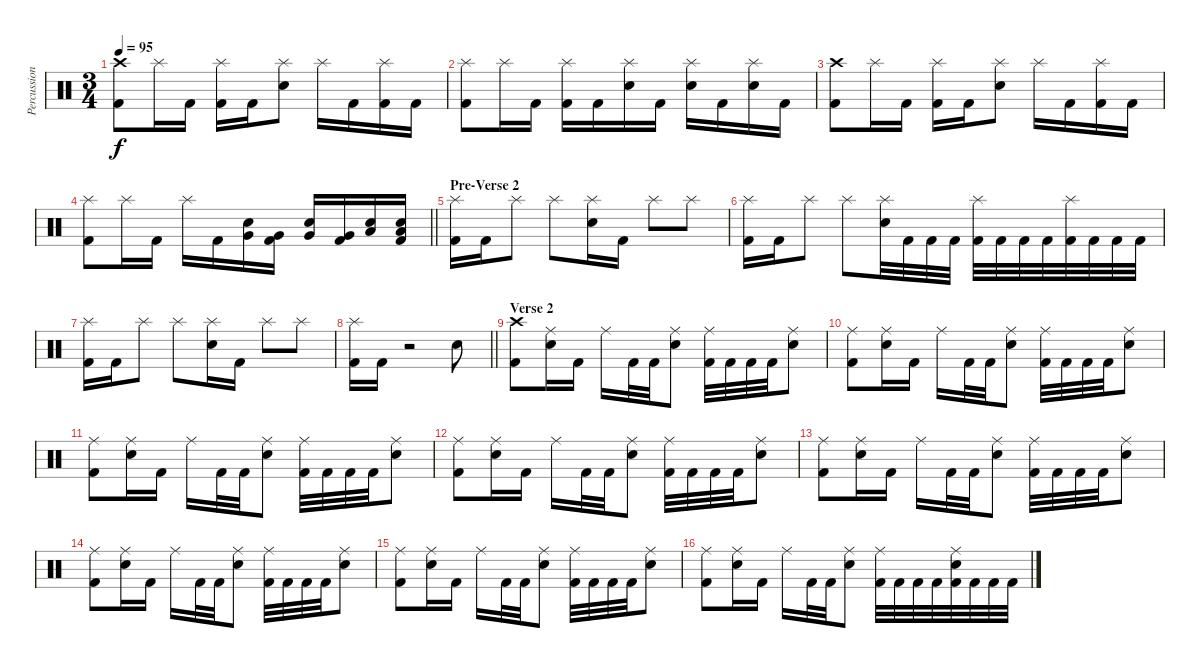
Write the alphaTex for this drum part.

\track ("Percussion Mike" "Percussion") {instrument percussion}
\staff {score}
\articulation defaults
\ts (3 4)
\tempo 95
\clef neutral
\ks c
("Crash high (hit)" "Kick (hit) 2").8{dy f} "Splash (hit)".16 "Kick (hit) 2".16 ("Splash (hit)" "Kick (hit) 2").16 "Kick (hit) 2".16 ("Splash (hit)" "Snare (hit) 2").8 "Splash (hit)".16 "Kick (hit) 2".16 ("Splash (hit)" "Kick (hit) 2").16 "Kick (hit) 2".16 |
("Splash (hit)" "Kick (hit) 2").8 "Splash (hit)".16 "Kick (hit) 2".16 ("Splash (hit)" "Kick (hit) 2").16 "Kick (hit) 2".16 ("Splash (hit)" "Snare (hit) 2").16 "Kick (hit) 2".16 ("Splash (hit)" "Snare (hit) 2").16 "Kick (hit) 2".16 ("Splash (hit)" "Snare (hit) 2").16 "Kick (hit) 2".16 |
("Crash high (hit)" "Kick (hit) 2").8 "Splash (hit)".16 "Kick (hit) 2".16 ("Splash (hit)" "Kick (hit) 2").16 "Kick (hit) 2".16 ("Splash (hit)" "Snare (hit) 2").8 "Splash (hit)".16 "Kick (hit) 2".16 ("Splash (hit)" "Kick (hit) 2").16 "Kick (hit) 2".16 |
\barLineRight lightlight
("Splash (hit)" "Kick (hit) 2").8 "Splash (hit)".16 "Kick (hit) 2".16 "Splash (hit)".16 "Kick (hit) 2".16 ("Very Low Tom (hit)" "Snare (hit) 2").16 ("Very Low Tom (hit)" "Kick (hit) 2").16 ("Very Low Tom (hit)" "Snare (hit) 2").16 ("Very Low Tom (hit)" "Kick (hit) 2").16 ("Snare (hit) 2" "Low Floor Tom (hit)").16 ("Snare (hit) 2" "Low Floor Tom (hit)" "Kick (hit) 2").16 |
\section ("" "Pre-Verse 2")
("Splash (hit)" "Kick (hit) 2").16 "Kick (hit) 2".16 "Splash (hit)".8 "Splash (hit)".8 ("Splash (hit)" "Snare (hit) 2").16 "Kick (hit) 2".16 "Splash (hit)".8 "Splash (hit)".8 |
("Splash (hit)" "Kick (hit) 2").16 "Kick (hit) 2".16 "Splash (hit)".8 "Splash (hit)".8 ("Splash (hit)" "Snare (hit) 2").32 "Kick (hit) 2".32 "Kick (hit) 2".32 "Kick (hit) 2".32 ("Splash (hit)" "Kick (hit) 2").32 "Kick (hit) 2".32 "Kick (hit) 2".32 "Kick (hit) 2".32 ("Splash (hit)" "Kick (hit) 2").32 "Kick (hit) 2".32 "Kick (hit) 2".32 "Kick (hit) 2".32 |
("Splash (hit)" "Kick (hit) 2").16 "Kick (hit) 2".16 "Splash (hit)".8 "Splash (hit)".8 ("Splash (hit)" "Snare (hit) 2").16 "Kick (hit) 2".16 "Splash (hit)".8 "Splash (hit)".8 |
\barLineRight lightlight
("Splash (hit)" "Kick (hit) 2").16 "Kick (hit) 2".16 r.2 "Snare (hit) 2".8 |
\section ("" "Verse 2")
("Crash high (hit)" "Kick (hit) 2").8 ("Ride (middle)" "Snare (hit) 2").16 "Kick (hit) 2".16 "Ride (middle)".16 "Kick (hit) 2".32 "Kick (hit) 2".32 ("Ride (middle)" "Snare (hit) 2").8 ("Ride (middle)" "Kick (hit) 2").32 "Kick (hit) 2".32 "Kick (hit) 2".32 "Kick (hit) 2".32 ("Ride (middle)" "Snare (hit) 2").8 |
("Ride (middle)" "Kick (hit) 2").8 ("Ride (middle)" "Snare (hit) 2").16 "Kick (hit) 2".16 "Ride (middle)".16 "Kick (hit) 2".32 "Kick (hit) 2".32 ("Ride (middle)" "Snare (hit) 2").8 ("Ride (middle)" "Kick (hit) 2").32 "Kick (hit) 2".32 "Kick (hit) 2".32 "Kick (hit) 2".32 ("Ride (middle)" "Snare (hit) 2").8 |
("Ride (middle)" "Kick (hit) 2").8 ("Ride (middle)" "Snare (hit) 2").16 "Kick (hit) 2".16 "Ride (middle)".16 "Kick (hit) 2".32 "Kick (hit) 2".32 ("Ride (middle)" "Snare (hit) 2").8 ("Ride (middle)" "Kick (hit) 2").32 "Kick (hit) 2".32 "Kick (hit) 2".32 "Kick (hit) 2".32 ("Ride (middle)" "Snare (hit) 2").8 |
("Ride (middle)" "Kick (hit) 2").8 ("Ride (middle)" "Snare (hit) 2").16 "Kick (hit) 2".16 "Ride (middle)".16 "Kick (hit) 2".32 "Kick (hit) 2".32 ("Ride (middle)" "Snare (hit) 2").8 ("Ride (middle)" "Kick (hit) 2").32 "Kick (hit) 2".32 "Kick (hit) 2".32 "Kick (hit) 2".32 ("Ride (middle)" "Snare (hit) 2").8 |
("Ride (middle)" "Kick (hit) 2").8 ("Ride (middle)" "Snare (hit) 2").16 "Kick (hit) 2".16 "Ride (middle)".16 "Kick (hit) 2".32 "Kick (hit) 2".32 ("Ride (middle)" "Snare (hit) 2").8 ("Ride (middle)" "Kick (hit) 2").32 "Kick (hit) 2".32 "Kick (hit) 2".32 "Kick (hit) 2".32 ("Ride (middle)" "Snare (hit) 2").8 |
("Ride (middle)" "Kick (hit) 2").8 ("Ride (middle)" "Snare (hit) 2").16 "Kick (hit) 2".16 "Ride (middle)".16 "Kick (hit) 2".32 "Kick (hit) 2".32 ("Ride (middle)" "Snare (hit) 2").8 ("Ride (middle)" "Kick (hit) 2").32 "Kick (hit) 2".32 "Kick (hit) 2".32 "Kick (hit) 2".32 ("Ride (middle)" "Snare (hit) 2").8 |
("Ride (middle)" "Kick (hit) 2").8 ("Ride (middle)" "Snare (hit) 2").16 "Kick (hit) 2".16 "Ride (middle)".16 "Kick (hit) 2".32 "Kick (hit) 2".32 ("Ride (middle)" "Snare (hit) 2").8 ("Ride (middle)" "Kick (hit) 2").32 "Kick (hit) 2".32 "Kick (hit) 2".32 "Kick (hit) 2".32 ("Ride (middle)" "Snare (hit) 2").8 |
("Ride (middle)" "Kick (hit) 2").8 ("Ride (middle)" "Snare (hit) 2").16 "Kick (hit) 2".16 "Ride (middle)".16 "Kick (hit) 2".32 "Kick (hit) 2".32 ("Ride (middle)" "Snare (hit) 2").8 ("Ride (middle)" "Kick (hit) 2").32 "Kick (hit) 2".32 "Kick (hit) 2".32 "Kick (hit) 2".32 ("Ride (middle)" "Snare (hit) 2" "Kick (hit) 2").32 "Kick (hit) 2".32 "Kick (hit) 2".32 "Kick (hit) 2".32
